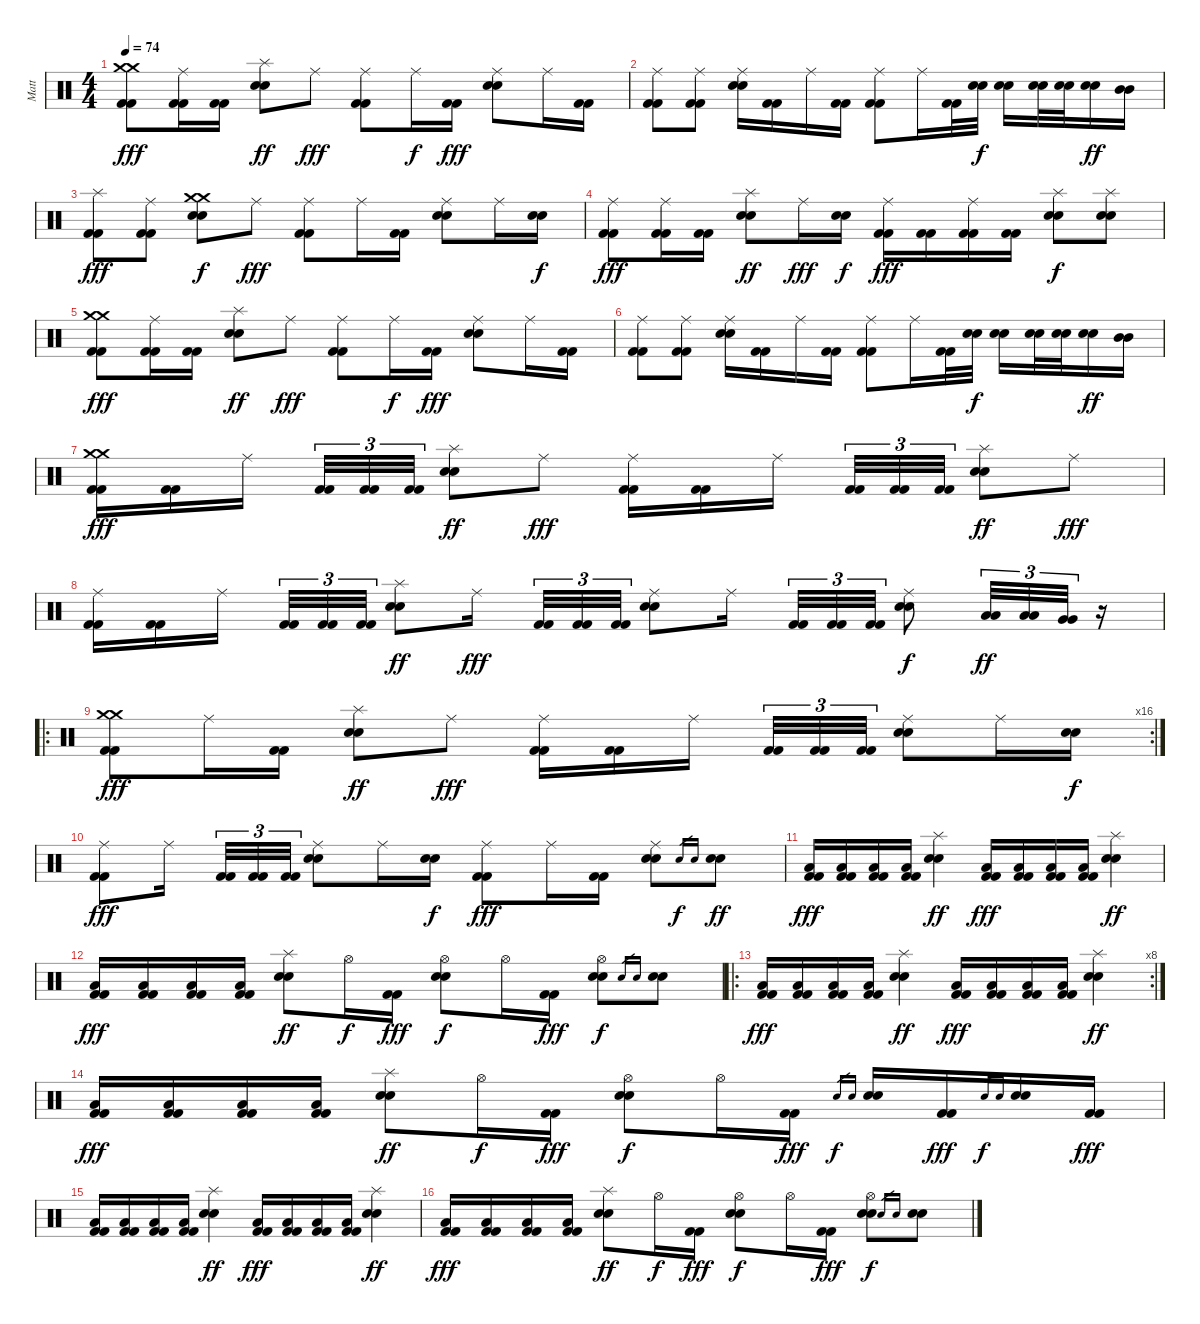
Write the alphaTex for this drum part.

\track ("Matt" "Matt") {instrument percussion}
\staff {score}
\articulation defaults
\ts (4 4)
\tempo 74
\clef neutral
\ks c
("Crash medium (hit)" "Crash medium (hit)" "Kick (hit) 2" "Kick (hit) 2").8{dy fff} ("Ride (middle)" "Kick (hit) 2" "Kick (hit) 2").16 ("Kick (hit) 2" "Kick (hit) 2").16 ("Splash (hit)" "Electric Snare (hit)" "Electric Snare (hit)").8{dy ff} "Ride (middle)".8{dy fff} ("Ride (middle)" "Kick (hit) 2" "Kick (hit) 2").8 "Ride (middle)".16{dy f} ("Kick (hit) 2" "Kick (hit) 2").16{dy fff} ("Ride (middle)" "Electric Snare (hit)" "Electric Snare (hit)").8 "Ride (middle)".16 ("Kick (hit) 2" "Kick (hit) 2").16 |
("Ride (middle)" "Kick (hit) 2" "Kick (hit) 2").8 ("Ride (middle)" "Kick (hit) 2" "Kick (hit) 2").8 ("Ride (middle)" "Electric Snare (hit)" "Electric Snare (hit)").16 ("Kick (hit) 2" "Kick (hit) 2").16 "Ride (middle)".16 ("Kick (hit) 2" "Kick (hit) 2").16 ("Ride (middle)" "Kick (hit) 2" "Kick (hit) 2").8 "Ride (middle)".16 ("Kick (hit) 2" "Kick (hit) 2").32 ("Electric Snare (hit)" "Electric Snare (hit)").32{dy f} ("Electric Snare (hit)" "Electric Snare (hit)").16 ("Electric Snare (hit)" "Electric Snare (hit)").32 ("Electric Snare (hit)" "Electric Snare (hit)").32 ("Electric Snare (hit)" "Electric Snare (hit)").16{dy ff} ("Mid Tom (hit)" "Mid Tom (hit)").16 |
("Splash (hit)" "Kick (hit) 2" "Kick (hit) 2").8{dy fff} ("Ride (middle)" "Kick (hit) 2" "Kick (hit) 2").8 ("Crash medium (hit)" "Crash medium (hit)" "Electric Snare (hit)" "Electric Snare (hit)").8{dy f} "Ride (middle)".8{dy fff} ("Ride (middle)" "Kick (hit) 2" "Kick (hit) 2").8 "Ride (middle)".16 ("Kick (hit) 2" "Kick (hit) 2").16 ("Ride (middle)" "Electric Snare (hit)" "Electric Snare (hit)").8 "Ride (middle)".16 ("Electric Snare (hit)" "Electric Snare (hit)").16{dy f} |
("Ride (middle)" "Kick (hit) 2" "Kick (hit) 2").8{dy fff} ("Ride (middle)" "Kick (hit) 2" "Kick (hit) 2").16 ("Kick (hit) 2" "Kick (hit) 2").16 ("Splash (hit)" "Electric Snare (hit)" "Electric Snare (hit)").8{dy ff} "Ride (middle)".16{dy fff} ("Electric Snare (hit)" "Electric Snare (hit)").16{dy f} ("Ride (middle)" "Kick (hit) 2" "Kick (hit) 2").16{dy fff} ("Kick (hit) 2" "Kick (hit) 2").16 ("Ride (middle)" "Kick (hit) 2" "Kick (hit) 2").16 ("Kick (hit) 2" "Kick (hit) 2").16 ("Splash (hit)" "Electric Snare (hit)" "Electric Snare (hit)").8{dy f} ("Splash (hit)" "Electric Snare (hit)" "Electric Snare (hit)").8 |
("Crash medium (hit)" "Crash medium (hit)" "Kick (hit) 2" "Kick (hit) 2").8{dy fff} ("Ride (middle)" "Kick (hit) 2" "Kick (hit) 2").16 ("Kick (hit) 2" "Kick (hit) 2").16 ("Splash (hit)" "Electric Snare (hit)" "Electric Snare (hit)").8{dy ff} "Ride (middle)".8{dy fff} ("Ride (middle)" "Kick (hit) 2" "Kick (hit) 2").8 "Ride (middle)".16{dy f} ("Kick (hit) 2" "Kick (hit) 2").16{dy fff} ("Ride (middle)" "Electric Snare (hit)" "Electric Snare (hit)").8 "Ride (middle)".16 ("Kick (hit) 2" "Kick (hit) 2").16 |
("Ride (middle)" "Kick (hit) 2" "Kick (hit) 2").8 ("Ride (middle)" "Kick (hit) 2" "Kick (hit) 2").8 ("Ride (middle)" "Electric Snare (hit)" "Electric Snare (hit)").16 ("Kick (hit) 2" "Kick (hit) 2").16 "Ride (middle)".16 ("Kick (hit) 2" "Kick (hit) 2").16 ("Ride (middle)" "Kick (hit) 2" "Kick (hit) 2").8 "Ride (middle)".16 ("Kick (hit) 2" "Kick (hit) 2").32 ("Electric Snare (hit)" "Electric Snare (hit)").32{dy f} ("Electric Snare (hit)" "Electric Snare (hit)").16 ("Electric Snare (hit)" "Electric Snare (hit)").32 ("Electric Snare (hit)" "Electric Snare (hit)").32 ("Electric Snare (hit)" "Electric Snare (hit)").16{dy ff} ("Mid Tom (hit)" "Mid Tom (hit)").16 |
("Crash medium (hit)" "Crash medium (hit)" "Kick (hit) 2" "Kick (hit) 2").16{dy fff} ("Kick (hit) 2" "Kick (hit) 2").16 "Ride (middle)".16{beam splitsecondary} ("Kick (hit) 2" "Kick (hit) 2").32{tu (3 2)} ("Kick (hit) 2" "Kick (hit) 2").32{tu (3 2)} ("Kick (hit) 2" "Kick (hit) 2").32{tu (3 2)} ("Splash (hit)" "Electric Snare (hit)" "Electric Snare (hit)").8{dy ff} "Ride (middle)".8{dy fff} ("Ride (middle)" "Kick (hit) 2" "Kick (hit) 2").16 ("Kick (hit) 2" "Kick (hit) 2").16 "Ride (middle)".16{beam splitsecondary} ("Kick (hit) 2" "Kick (hit) 2").32{tu (3 2)} ("Kick (hit) 2" "Kick (hit) 2").32{tu (3 2)} ("Kick (hit) 2" "Kick (hit) 2").32{tu (3 2)} ("Splash (hit)" "Electric Snare (hit)" "Electric Snare (hit)").8{dy ff} "Ride (middle)".8{dy fff} |
("Ride (middle)" "Kick (hit) 2" "Kick (hit) 2").16 ("Kick (hit) 2" "Kick (hit) 2").16 "Ride (middle)".16{beam splitsecondary} ("Kick (hit) 2" "Kick (hit) 2").32{tu (3 2)} ("Kick (hit) 2" "Kick (hit) 2").32{tu (3 2)} ("Kick (hit) 2" "Kick (hit) 2").32{tu (3 2)} ("Splash (hit)" "Electric Snare (hit)" "Electric Snare (hit)").8{dy ff} "Ride (middle)".16{dy fff beam splitsecondary} ("Kick (hit) 2" "Kick (hit) 2").32{tu (3 2)} ("Kick (hit) 2" "Kick (hit) 2").32{tu (3 2)} ("Kick (hit) 2" "Kick (hit) 2").32{tu (3 2)} ("Ride (middle)" "Electric Snare (hit)" "Electric Snare (hit)").8 "Ride (middle)".16{beam splitsecondary} ("Kick (hit) 2" "Kick (hit) 2").32{tu (3 2)} ("Kick (hit) 2" "Kick (hit) 2").32{tu (3 2)} ("Kick (hit) 2" "Kick (hit) 2").32{tu (3 2)} ("Ride (middle)" "Electric Snare (hit)" "Electric Snare (hit)").8{dy f} ("Low Tom (hit)" "Low Tom (hit)").32{tu (3 2) dy ff} ("Low Tom (hit)" "Low Tom (hit)").32{tu (3 2)} ("Very Low Tom (hit)" "Very Low Tom (hit)").32{tu (3 2)} r.16 |
\ro
\rc 16
("Crash medium (hit)" "Crash medium (hit)" "Kick (hit) 2" "Kick (hit) 2").8{dy fff} "Ride (middle)".16 ("Kick (hit) 2" "Kick (hit) 2").16 ("Splash (hit)" "Electric Snare (hit)" "Electric Snare (hit)").8{dy ff} "Ride (middle)".8{dy fff} ("Ride (middle)" "Kick (hit) 2" "Kick (hit) 2").16 ("Kick (hit) 2" "Kick (hit) 2").16 "Ride (middle)".16{beam splitsecondary} ("Kick (hit) 2" "Kick (hit) 2").32{tu (3 2)} ("Kick (hit) 2" "Kick (hit) 2").32{tu (3 2)} ("Kick (hit) 2" "Kick (hit) 2").32{tu (3 2)} ("Ride (middle)" "Electric Snare (hit)" "Electric Snare (hit)").8 "Ride (middle)".16 ("Electric Snare (hit)" "Electric Snare (hit)").16{dy f} |
("Ride (middle)" "Kick (hit) 2" "Kick (hit) 2").8{dy fff} "Ride (middle)".16{beam splitsecondary} ("Kick (hit) 2" "Kick (hit) 2").32{tu (3 2)} ("Kick (hit) 2" "Kick (hit) 2").32{tu (3 2)} ("Kick (hit) 2" "Kick (hit) 2").32{tu (3 2)} ("Ride (middle)" "Electric Snare (hit)" "Electric Snare (hit)").8 "Ride (middle)".16 ("Electric Snare (hit)" "Electric Snare (hit)").16{dy f} ("Ride (middle)" "Kick (hit) 2" "Kick (hit) 2").8{dy fff} "Ride (middle)".16 ("Kick (hit) 2" "Kick (hit) 2").16 ("Ride (middle)" "Electric Snare (hit)" "Electric Snare (hit)").8 "Electric Snare (hit)".16{gr dy f} "Electric Snare (hit)".16{gr} ("Electric Snare (hit)" "Electric Snare (hit)").8{dy ff} |
("Low Tom (hit)" "Kick (hit) 2" "Kick (hit) 2").16{dy fff} ("Low Tom (hit)" "Kick (hit) 2" "Kick (hit) 2").16 ("Low Tom (hit)" "Kick (hit) 2" "Kick (hit) 2").16 ("Low Tom (hit)" "Kick (hit) 2" "Kick (hit) 2").16 ("Splash (hit)" "Electric Snare (hit)" "Electric Snare (hit)").4{dy ff} ("Low Tom (hit)" "Kick (hit) 2" "Kick (hit) 2").16{dy fff} ("Low Tom (hit)" "Kick (hit) 2" "Kick (hit) 2").16 ("Low Tom (hit)" "Kick (hit) 2" "Kick (hit) 2").16 ("Low Tom (hit)" "Kick (hit) 2" "Kick (hit) 2").16 ("Splash (hit)" "Electric Snare (hit)" "Electric Snare (hit)").4{dy ff} |
("Low Tom (hit)" "Kick (hit) 2" "Kick (hit) 2").16{dy fff} ("Low Tom (hit)" "Kick (hit) 2" "Kick (hit) 2").16 ("Low Tom (hit)" "Kick (hit) 2" "Kick (hit) 2").16 ("Low Tom (hit)" "Kick (hit) 2" "Kick (hit) 2").16 ("Splash (hit)" "Electric Snare (hit)" "Electric Snare (hit)").8{dy ff} "Hi-Hat (open)".16{dy f} ("Kick (hit) 2" "Kick (hit) 2").16{dy fff} ("Hi-Hat (open)" "Electric Snare (hit)" "Electric Snare (hit)").8{dy f} "Hi-Hat (open)".16 ("Kick (hit) 2" "Kick (hit) 2").16{dy fff} ("Hi-Hat (open)" "Electric Snare (hit)" "Electric Snare (hit)").8{dy f} "Electric Snare (hit)".16{gr} "Electric Snare (hit)".16{gr} ("Electric Snare (hit)" "Electric Snare (hit)").8 |
\ro
\rc 8
("Low Tom (hit)" "Kick (hit) 2" "Kick (hit) 2").16{dy fff} ("Low Tom (hit)" "Kick (hit) 2" "Kick (hit) 2").16 ("Low Tom (hit)" "Kick (hit) 2" "Kick (hit) 2").16 ("Low Tom (hit)" "Kick (hit) 2" "Kick (hit) 2").16 ("Splash (hit)" "Electric Snare (hit)" "Electric Snare (hit)").4{dy ff} ("Low Tom (hit)" "Kick (hit) 2" "Kick (hit) 2").16{dy fff} ("Low Tom (hit)" "Kick (hit) 2" "Kick (hit) 2").16 ("Low Tom (hit)" "Kick (hit) 2" "Kick (hit) 2").16 ("Low Tom (hit)" "Kick (hit) 2" "Kick (hit) 2").16 ("Splash (hit)" "Electric Snare (hit)" "Electric Snare (hit)").4{dy ff} |
("Low Tom (hit)" "Kick (hit) 2" "Kick (hit) 2").16{dy fff} ("Low Tom (hit)" "Kick (hit) 2" "Kick (hit) 2").16 ("Low Tom (hit)" "Kick (hit) 2" "Kick (hit) 2").16 ("Low Tom (hit)" "Kick (hit) 2" "Kick (hit) 2").16 ("Splash (hit)" "Electric Snare (hit)" "Electric Snare (hit)").8{dy ff} "Hi-Hat (open)".16{dy f} ("Kick (hit) 2" "Kick (hit) 2").16{dy fff} ("Hi-Hat (open)" "Electric Snare (hit)" "Electric Snare (hit)").8{dy f} "Hi-Hat (open)".16 ("Kick (hit) 2" "Kick (hit) 2").16{dy fff} "Electric Snare (hit)".16{gr dy f} "Electric Snare (hit)".16{gr} ("Electric Snare (hit)" "Electric Snare (hit)").16 ("Kick (hit) 2" "Kick (hit) 2").16{dy fff} "Electric Snare (hit)".16{gr dy f} "Electric Snare (hit)".16{gr} ("Electric Snare (hit)" "Electric Snare (hit)").16 ("Kick (hit) 2" "Kick (hit) 2").16{dy fff} |
("Low Tom (hit)" "Kick (hit) 2" "Kick (hit) 2").16 ("Low Tom (hit)" "Kick (hit) 2" "Kick (hit) 2").16 ("Low Tom (hit)" "Kick (hit) 2" "Kick (hit) 2").16 ("Low Tom (hit)" "Kick (hit) 2" "Kick (hit) 2").16 ("Splash (hit)" "Electric Snare (hit)" "Electric Snare (hit)").4{dy ff} ("Low Tom (hit)" "Kick (hit) 2" "Kick (hit) 2").16{dy fff} ("Low Tom (hit)" "Kick (hit) 2" "Kick (hit) 2").16 ("Low Tom (hit)" "Kick (hit) 2" "Kick (hit) 2").16 ("Low Tom (hit)" "Kick (hit) 2" "Kick (hit) 2").16 ("Splash (hit)" "Electric Snare (hit)" "Electric Snare (hit)").4{dy ff} |
("Low Tom (hit)" "Kick (hit) 2" "Kick (hit) 2").16{dy fff} ("Low Tom (hit)" "Kick (hit) 2" "Kick (hit) 2").16 ("Low Tom (hit)" "Kick (hit) 2" "Kick (hit) 2").16 ("Low Tom (hit)" "Kick (hit) 2" "Kick (hit) 2").16 ("Splash (hit)" "Electric Snare (hit)" "Electric Snare (hit)").8{dy ff} "Hi-Hat (open)".16{dy f} ("Kick (hit) 2" "Kick (hit) 2").16{dy fff} ("Hi-Hat (open)" "Electric Snare (hit)" "Electric Snare (hit)").8{dy f} "Hi-Hat (open)".16 ("Kick (hit) 2" "Kick (hit) 2").16{dy fff} ("Hi-Hat (open)" "Electric Snare (hit)" "Electric Snare (hit)").8{dy f} "Electric Snare (hit)".16{gr} "Electric Snare (hit)".16{gr} ("Electric Snare (hit)" "Electric Snare (hit)").8
